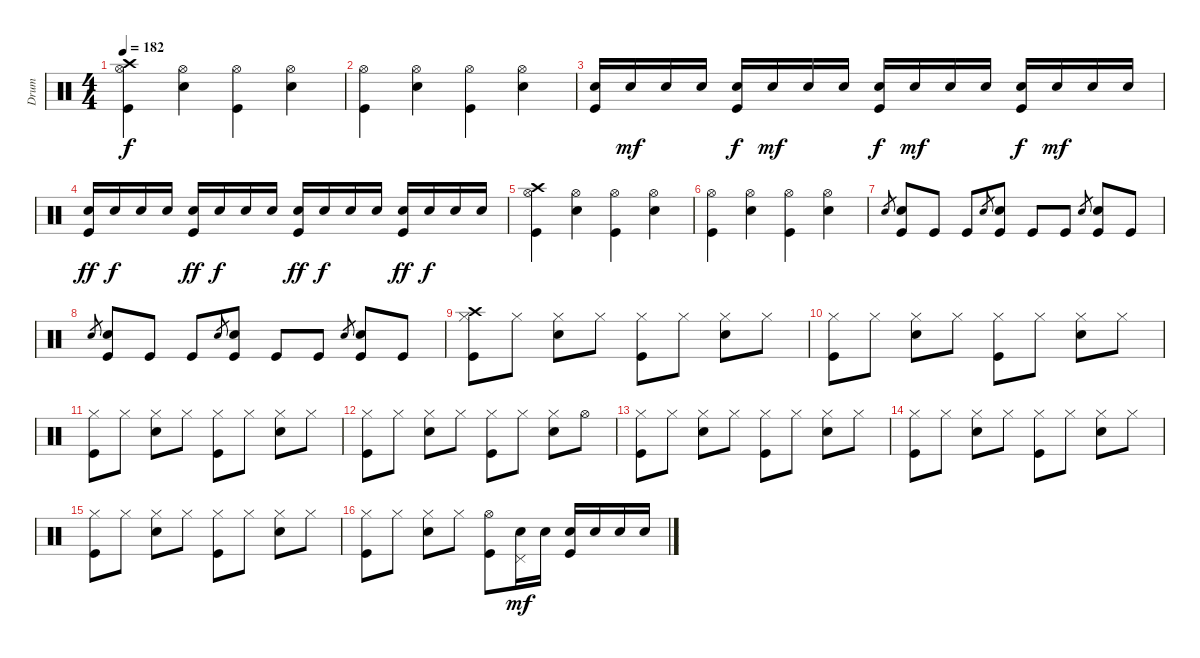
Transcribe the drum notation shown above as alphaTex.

\track ("Drum" "Drum") {instrument percussion}
\staff {score}
\articulation defaults
\ts (4 4)
\tempo 182
\clef neutral
\ks c
("Crash high (hit)" "Hi-Hat (open)" "Kick (hit)").4{dy f} ("Snare (hit) 2" "Hi-Hat (open)").4 ("Hi-Hat (open)" "Kick (hit)").4 ("Snare (hit) 2" "Hi-Hat (open)").4 |
("Hi-Hat (open)" "Kick (hit)").4 ("Snare (hit) 2" "Hi-Hat (open)").4 ("Hi-Hat (open)" "Kick (hit)").4 ("Snare (hit) 2" "Hi-Hat (open)").4 |
("Snare (hit) 2" "Kick (hit)").16 "Snare (hit) 2".16{dy mf} "Snare (hit) 2".16 "Snare (hit) 2".16 ("Snare (hit) 2" "Kick (hit)").16{dy f} "Snare (hit) 2".16{dy mf} "Snare (hit) 2".16 "Snare (hit) 2".16 ("Snare (hit) 2" "Kick (hit)").16{dy f} "Snare (hit) 2".16{dy mf} "Snare (hit) 2".16 "Snare (hit) 2".16 ("Snare (hit) 2" "Kick (hit)").16{dy f} "Snare (hit) 2".16{dy mf} "Snare (hit) 2".16 "Snare (hit) 2".16 |
("Snare (hit) 2" "Kick (hit)").16{dy ff} "Snare (hit) 2".16{dy f} "Snare (hit) 2".16 "Snare (hit) 2".16 ("Snare (hit) 2" "Kick (hit)").16{dy ff} "Snare (hit) 2".16{dy f} "Snare (hit) 2".16 "Snare (hit) 2".16 ("Snare (hit) 2" "Kick (hit)").16{dy ff} "Snare (hit) 2".16{dy f} "Snare (hit) 2".16 "Snare (hit) 2".16 ("Snare (hit) 2" "Kick (hit)").16{dy ff} "Snare (hit) 2".16{dy f} "Snare (hit) 2".16 "Snare (hit) 2".16 |
("Crash high (hit)" "Hi-Hat (open)" "Kick (hit)").4 ("Snare (hit) 2" "Hi-Hat (open)").4 ("Hi-Hat (open)" "Kick (hit)").4 ("Snare (hit) 2" "Hi-Hat (open)").4 |
("Hi-Hat (open)" "Kick (hit)").4 ("Snare (hit) 2" "Hi-Hat (open)").4 ("Hi-Hat (open)" "Kick (hit)").4 ("Snare (hit) 2" "Hi-Hat (open)").4 |
"Snare (hit) 2".8{gr} ("Snare (hit) 2" "Kick (hit)").8 "Kick (hit)".8 "Kick (hit)".8 "Snare (hit) 2".8{gr} ("Snare (hit) 2" "Kick (hit)").8 "Kick (hit)".8 "Kick (hit)".8 "Snare (hit) 2".8{gr} ("Snare (hit) 2" "Kick (hit)").8 "Kick (hit)".8 |
"Snare (hit) 2".8{gr} ("Snare (hit) 2" "Kick (hit)").8 "Kick (hit)".8 "Kick (hit)".8 "Snare (hit) 2".8{gr} ("Snare (hit) 2" "Kick (hit)").8 "Kick (hit)".8 "Kick (hit)".8 "Snare (hit) 2".8{gr} ("Snare (hit) 2" "Kick (hit)").8 "Kick (hit)".8 |
("Crash high (hit)" "Hi-Hat (closed)" "Kick (hit)").8 "Hi-Hat (closed)".8 ("Snare (hit) 2" "Hi-Hat (closed)").8 "Hi-Hat (closed)".8 ("Hi-Hat (closed)" "Kick (hit)").8 "Hi-Hat (closed)".8 ("Snare (hit) 2" "Hi-Hat (closed)").8 "Hi-Hat (closed)".8 |
("Hi-Hat (closed)" "Kick (hit)").8 "Hi-Hat (closed)".8 ("Snare (hit) 2" "Hi-Hat (closed)").8 "Hi-Hat (closed)".8 ("Hi-Hat (closed)" "Kick (hit)").8 "Hi-Hat (closed)".8 ("Snare (hit) 2" "Hi-Hat (closed)").8 "Hi-Hat (closed)".8 |
("Hi-Hat (closed)" "Kick (hit)").8 "Hi-Hat (closed)".8 ("Snare (hit) 2" "Hi-Hat (closed)").8 "Hi-Hat (closed)".8 ("Hi-Hat (closed)" "Kick (hit)").8 "Hi-Hat (closed)".8 ("Snare (hit) 2" "Hi-Hat (closed)").8 "Hi-Hat (closed)".8 |
("Hi-Hat (closed)" "Kick (hit)").8 "Hi-Hat (closed)".8 ("Snare (hit) 2" "Hi-Hat (closed)").8 "Hi-Hat (closed)".8 ("Hi-Hat (closed)" "Kick (hit)").8 "Hi-Hat (closed)".8 ("Snare (hit) 2" "Hi-Hat (closed)").8 "Hi-Hat (open)".8 |
("Hi-Hat (closed)" "Kick (hit)").8 "Hi-Hat (closed)".8 ("Snare (hit) 2" "Hi-Hat (closed)").8 "Hi-Hat (closed)".8 ("Hi-Hat (closed)" "Kick (hit)").8 "Hi-Hat (closed)".8 ("Snare (hit) 2" "Hi-Hat (closed)").8 "Hi-Hat (closed)".8 |
("Hi-Hat (closed)" "Kick (hit)").8 "Hi-Hat (closed)".8 ("Snare (hit) 2" "Hi-Hat (closed)").8 "Hi-Hat (closed)".8 ("Hi-Hat (closed)" "Kick (hit)").8 "Hi-Hat (closed)".8 ("Snare (hit) 2" "Hi-Hat (closed)").8 "Hi-Hat (closed)".8 |
("Hi-Hat (closed)" "Kick (hit)").8 "Hi-Hat (closed)".8 ("Snare (hit) 2" "Hi-Hat (closed)").8 "Hi-Hat (closed)".8 ("Hi-Hat (closed)" "Kick (hit)").8 "Hi-Hat (closed)".8 ("Snare (hit) 2" "Hi-Hat (closed)").8 "Hi-Hat (closed)".8 |
("Hi-Hat (closed)" "Kick (hit)").8 "Hi-Hat (closed)".8 ("Snare (hit) 2" "Hi-Hat (closed)").8 "Hi-Hat (closed)".8 ("Hi-Hat (open)" "Kick (hit)").8 ("Snare (hit) 2" "Pedal Hi-Hat (hit)").16{dy mf} "Snare (hit) 2".16 ("Snare (hit) 2" "Kick (hit)").16 "Snare (hit) 2".16 "Snare (hit) 2".16 "Snare (hit) 2".16
